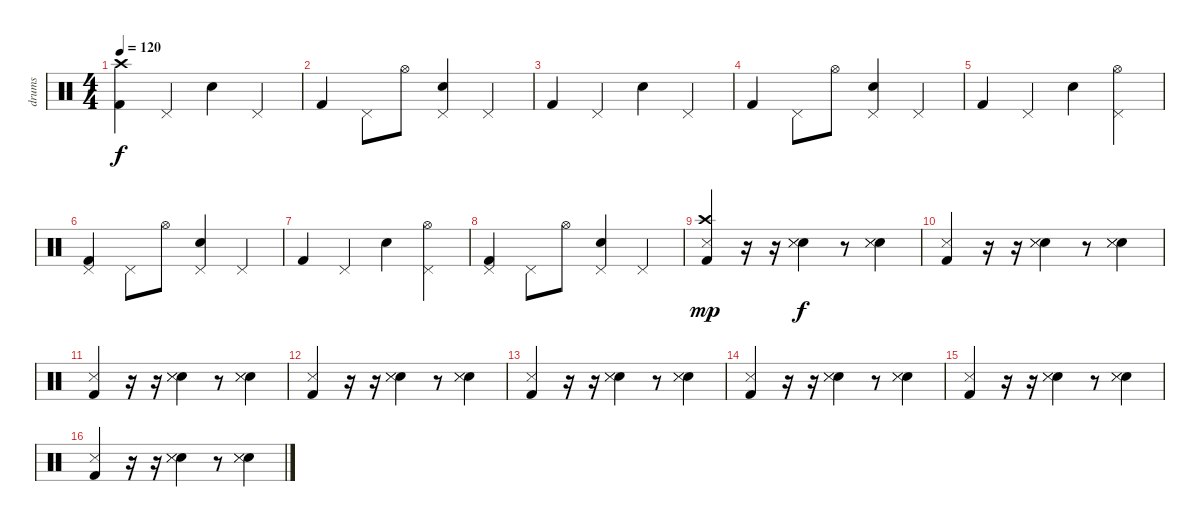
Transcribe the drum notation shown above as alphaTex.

\track ("drums" "drums") {instrument percussion}
\staff {score}
\articulation defaults
\ts (4 4)
\tempo 120
\clef neutral
\ks c
("Kick (hit) 2" "Crash high (hit)").4{dy f} "Pedal Hi-Hat (hit)".4 "Electric Snare (hit)".4 "Pedal Hi-Hat (hit)".4 |
"Kick (hit) 2".4 "Pedal Hi-Hat (hit)".8 "Hi-Hat (open)".8 ("Pedal Hi-Hat (hit)" "Electric Snare (hit)").4 "Pedal Hi-Hat (hit)".4 |
"Kick (hit) 2".4 "Pedal Hi-Hat (hit)".4 "Electric Snare (hit)".4 "Pedal Hi-Hat (hit)".4 |
"Kick (hit) 2".4 "Pedal Hi-Hat (hit)".8 "Hi-Hat (open)".8 ("Pedal Hi-Hat (hit)" "Electric Snare (hit)").4 "Pedal Hi-Hat (hit)".4 |
"Kick (hit) 2".4 "Pedal Hi-Hat (hit)".4 "Electric Snare (hit)".4 ("Pedal Hi-Hat (hit)" "Hi-Hat (open)").4 |
("Pedal Hi-Hat (hit)" "Kick (hit) 2").4 "Pedal Hi-Hat (hit)".8 "Hi-Hat (open)".8 ("Pedal Hi-Hat (hit)" "Electric Snare (hit)").4 "Pedal Hi-Hat (hit)".4 |
"Kick (hit) 2".4 "Pedal Hi-Hat (hit)".4 "Electric Snare (hit)".4 ("Pedal Hi-Hat (hit)" "Hi-Hat (open)").4 |
("Pedal Hi-Hat (hit)" "Kick (hit) 2").4 "Pedal Hi-Hat (hit)".8 "Hi-Hat (open)".8 ("Pedal Hi-Hat (hit)" "Electric Snare (hit)").4 "Pedal Hi-Hat (hit)".4 |
("Crash high (hit)" "Snare (side stick) 3" "Kick (hit) 2").4{dy mp} r.16 r.16 ("Electric Snare (hit)" "Snare (side stick) 3" "Snare (side stick) 3").4{dy f} r.8 ("Electric Snare (hit)" "Snare (side stick) 3" "Snare (side stick) 3").4 |
("Snare (side stick) 3" "Kick (hit) 2").4 r.16 r.16 ("Electric Snare (hit)" "Snare (side stick) 3" "Snare (side stick) 3").4 r.8 ("Electric Snare (hit)" "Snare (side stick) 3" "Snare (side stick) 3").4 |
("Snare (side stick) 3" "Kick (hit) 2").4 r.16 r.16 ("Electric Snare (hit)" "Snare (side stick) 3" "Snare (side stick) 3").4 r.8 ("Electric Snare (hit)" "Snare (side stick) 3" "Snare (side stick) 3").4 |
("Snare (side stick) 3" "Kick (hit) 2").4 r.16 r.16 ("Electric Snare (hit)" "Snare (side stick) 3" "Snare (side stick) 3").4 r.8 ("Electric Snare (hit)" "Snare (side stick) 3" "Snare (side stick) 3").4 |
("Snare (side stick) 3" "Kick (hit) 2").4 r.16 r.16 ("Electric Snare (hit)" "Snare (side stick) 3" "Snare (side stick) 3").4 r.8 ("Electric Snare (hit)" "Snare (side stick) 3" "Snare (side stick) 3").4 |
("Snare (side stick) 3" "Kick (hit) 2").4 r.16 r.16 ("Electric Snare (hit)" "Snare (side stick) 3" "Snare (side stick) 3").4 r.8 ("Electric Snare (hit)" "Snare (side stick) 3" "Snare (side stick) 3").4 |
("Snare (side stick) 3" "Kick (hit) 2").4 r.16 r.16 ("Electric Snare (hit)" "Snare (side stick) 3" "Snare (side stick) 3").4 r.8 ("Electric Snare (hit)" "Snare (side stick) 3" "Snare (side stick) 3").4 |
("Snare (side stick) 3" "Kick (hit) 2").4 r.16 r.16 ("Electric Snare (hit)" "Snare (side stick) 3" "Snare (side stick) 3").4 r.8 ("Electric Snare (hit)" "Snare (side stick) 3" "Snare (side stick) 3").4
